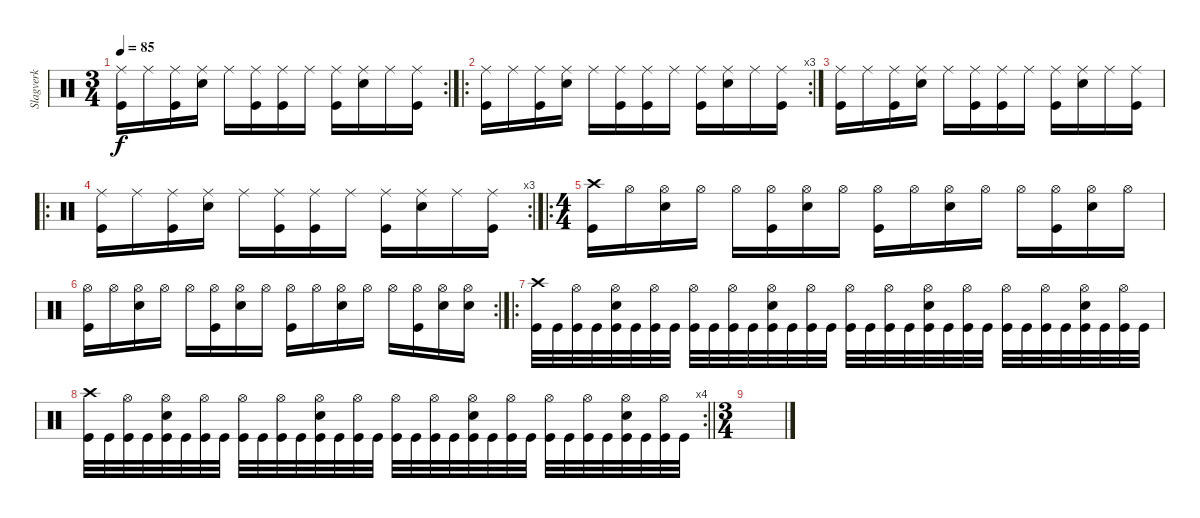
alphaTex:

\track ("Slagverk" "Slagverk") {instrument percussion}
\staff {score}
\articulation defaults
\rc 2
\ts (3 4)
\tempo 85
\clef neutral
\ks c
("Ride (middle)" "Kick (hit)").16{dy f} "Ride (middle)".16 ("Ride (middle)" "Kick (hit)").16 ("Ride (middle)" "Snare (hit) 2").16 "Ride (middle)".16 ("Ride (middle)" "Kick (hit)").16 ("Ride (middle)" "Kick (hit)").16 "Ride (middle)".16 ("Ride (middle)" "Kick (hit)").16 ("Ride (middle)" "Snare (hit) 2").16 "Ride (middle)".16 ("Ride (middle)" "Kick (hit)").16 |
\ro
\rc 3
("Ride (middle)" "Kick (hit)").16 "Ride (middle)".16 ("Ride (middle)" "Kick (hit)").16 ("Ride (middle)" "Snare (hit) 2").16 "Ride (middle)".16 ("Ride (middle)" "Kick (hit)").16 ("Ride (middle)" "Kick (hit)").16 "Ride (middle)".16 ("Ride (middle)" "Kick (hit)").16 ("Ride (middle)" "Snare (hit) 2").16 "Ride (middle)".16 ("Ride (middle)" "Kick (hit)").16 |
("Ride (middle)" "Kick (hit)").16 "Ride (middle)".16 ("Ride (middle)" "Kick (hit)").16 ("Ride (middle)" "Snare (hit) 2").16 "Ride (middle)".16 ("Ride (middle)" "Kick (hit)").16 ("Ride (middle)" "Kick (hit)").16 "Ride (middle)".16 ("Ride (middle)" "Kick (hit)").16 ("Ride (middle)" "Snare (hit) 2").16 "Ride (middle)".16 ("Ride (middle)" "Kick (hit)").16 |
\ro
\rc 3
("Ride (middle)" "Kick (hit)").16 "Ride (middle)".16 ("Ride (middle)" "Kick (hit)").16 ("Ride (middle)" "Snare (hit) 2").16 "Ride (middle)".16 ("Ride (middle)" "Kick (hit)").16 ("Ride (middle)" "Kick (hit)").16 "Ride (middle)".16 ("Ride (middle)" "Kick (hit)").16 ("Ride (middle)" "Snare (hit) 2").16 "Ride (middle)".16 ("Ride (middle)" "Kick (hit)").16 |
\ro
\ts (4 4)
("Crash high (hit)" "Kick (hit)").16 "Hi-Hat (open)".16 ("Hi-Hat (open)" "Snare (hit) 2").16 "Hi-Hat (open)".16 "Hi-Hat (open)".16 ("Hi-Hat (open)" "Kick (hit)").16 ("Hi-Hat (open)" "Snare (hit) 2").16 "Hi-Hat (open)".16 ("Hi-Hat (open)" "Kick (hit)").16 "Hi-Hat (open)".16 ("Hi-Hat (open)" "Snare (hit) 2").16 "Hi-Hat (open)".16 "Hi-Hat (open)".16 ("Hi-Hat (open)" "Kick (hit)").16 ("Hi-Hat (open)" "Snare (hit) 2").16 "Hi-Hat (open)".16 |
\rc 2
("Hi-Hat (open)" "Kick (hit)").16 "Hi-Hat (open)".16 ("Hi-Hat (open)" "Snare (hit) 2").16 "Hi-Hat (open)".16 "Hi-Hat (open)".16 ("Hi-Hat (open)" "Kick (hit)").16 ("Hi-Hat (open)" "Snare (hit) 2").16 "Hi-Hat (open)".16 ("Hi-Hat (open)" "Kick (hit)").16 "Hi-Hat (open)".16 ("Hi-Hat (open)" "Snare (hit) 2").16 "Hi-Hat (open)".16 "Hi-Hat (open)".16 ("Hi-Hat (open)" "Kick (hit)").16 ("Hi-Hat (open)" "Snare (hit) 2").16 ("Hi-Hat (open)" "Snare (hit) 2").16 |
\ro
("Crash high (hit)" "Kick (hit)").32 "Kick (hit)".32 ("Hi-Hat (open)" "Kick (hit)").32 "Kick (hit)".32 ("Hi-Hat (open)" "Snare (hit) 2" "Kick (hit)").32 "Kick (hit)".32 ("Hi-Hat (open)" "Kick (hit)").32 "Kick (hit)".32 ("Hi-Hat (open)" "Kick (hit)").32 "Kick (hit)".32 ("Hi-Hat (open)" "Kick (hit)").32 "Kick (hit)".32 ("Hi-Hat (open)" "Snare (hit) 2" "Kick (hit)").32 "Kick (hit)".32 ("Hi-Hat (open)" "Kick (hit)").32 "Kick (hit)".32 ("Hi-Hat (open)" "Kick (hit)").32 "Kick (hit)".32 ("Hi-Hat (open)" "Kick (hit)").32 "Kick (hit)".32 ("Hi-Hat (open)" "Snare (hit) 2" "Kick (hit)").32 "Kick (hit)".32 ("Hi-Hat (open)" "Kick (hit)").32 "Kick (hit)".32 ("Hi-Hat (open)" "Kick (hit)").32 "Kick (hit)".32 ("Hi-Hat (open)" "Kick (hit)").32 "Kick (hit)".32 ("Hi-Hat (open)" "Snare (hit) 2" "Kick (hit)").32 "Kick (hit)".32 ("Hi-Hat (open)" "Kick (hit)").32 "Kick (hit)".32 |
\rc 4
\barLineRight lightlight
("Crash high (hit)" "Kick (hit)").32 "Kick (hit)".32 ("Hi-Hat (open)" "Kick (hit)").32 "Kick (hit)".32 ("Hi-Hat (open)" "Snare (hit) 2" "Kick (hit)").32 "Kick (hit)".32 ("Hi-Hat (open)" "Kick (hit)").32 "Kick (hit)".32 ("Hi-Hat (open)" "Kick (hit)").32 "Kick (hit)".32 ("Hi-Hat (open)" "Kick (hit)").32 "Kick (hit)".32 ("Hi-Hat (open)" "Snare (hit) 2" "Kick (hit)").32 "Kick (hit)".32 ("Hi-Hat (open)" "Kick (hit)").32 "Kick (hit)".32 ("Hi-Hat (open)" "Kick (hit)").32 "Kick (hit)".32 ("Hi-Hat (open)" "Kick (hit)").32 "Kick (hit)".32 ("Hi-Hat (open)" "Snare (hit) 2" "Kick (hit)").32 "Kick (hit)".32 ("Hi-Hat (open)" "Kick (hit)").32 "Kick (hit)".32 ("Hi-Hat (open)" "Kick (hit)").32 "Kick (hit)".32 ("Hi-Hat (open)" "Kick (hit)").32 "Kick (hit)".32 ("Hi-Hat (open)" "Snare (hit) 2" "Kick (hit)").32 "Kick (hit)".32 ("Hi-Hat (open)" "Kick (hit)").32 "Kick (hit)".32 |
\ts (3 4)
